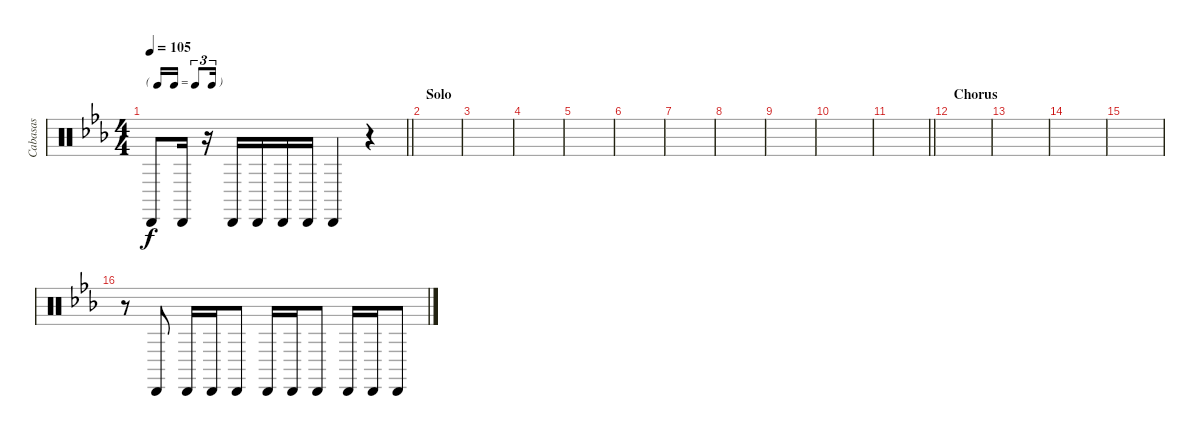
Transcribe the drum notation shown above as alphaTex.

\track ("Cabasas" "Cabasas") {instrument percussion}
\staff {score}
\articulation defaults
\ts (4 4)
\tf triplet16th
\tempo 105
\clef neutral
\barLineRight lightlight
\ks eb "Cabasa (hit)".8{dy f} "Cabasa (hit)".16
r.16 "Cabasa (hit)".16 "Cabasa (hit)".16 "Cabasa (hit)".16 "Cabasa (hit)".16 "Cabasa (hit)".4 r.4 |
\section ("" "Solo")
|
|
|
|
|
|
|
|
|
\barLineRight lightlight
|
\section ("" "Chorus")
|
|
|
|
r.8 "Cabasa (hit)".8 "Cabasa (hit)".16 "Cabasa (hit)".16 "Cabasa (hit)".8 "Cabasa (hit)".16 "Cabasa (hit)".16 "Cabasa (hit)".8 "Cabasa (hit)".16 "Cabasa (hit)".16 "Cabasa (hit)".8
